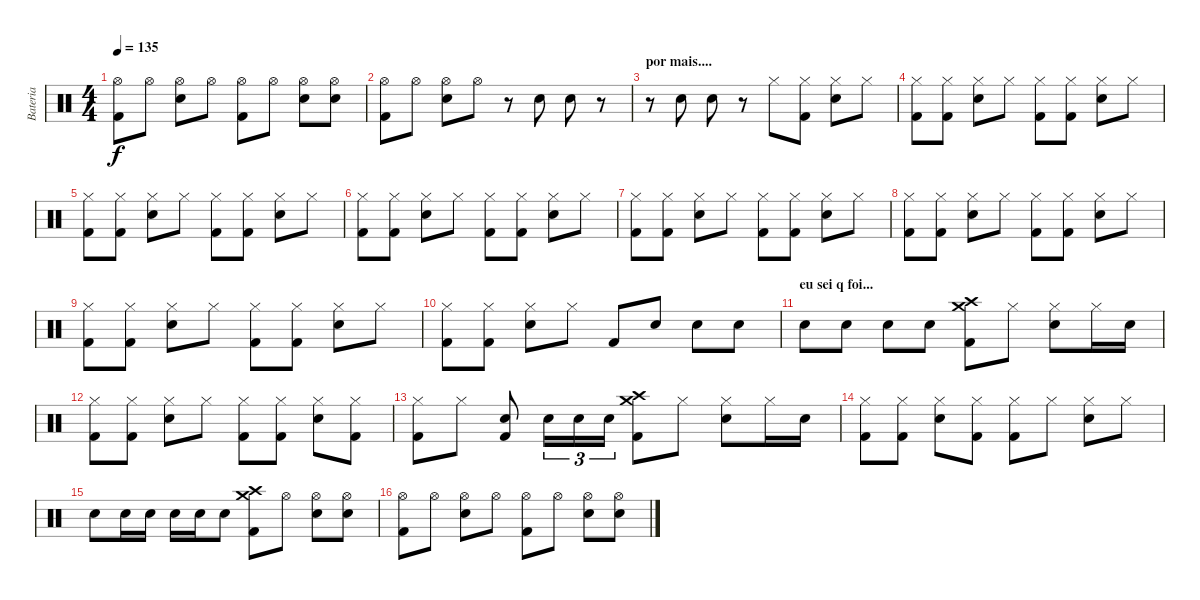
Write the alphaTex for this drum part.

\track ("Bateria" "Bateria") {instrument percussion}
\staff {score}
\articulation defaults
\ts (4 4)
\tempo 135
\clef neutral
\ks c
("Hi-Hat (open)" "Kick (hit) 2").8{dy f} "Hi-Hat (open)".8 ("Hi-Hat (open)" "Electric Snare (hit)").8 "Hi-Hat (open)".8 ("Hi-Hat (open)" "Kick (hit) 2").8 "Hi-Hat (open)".8 ("Hi-Hat (open)" "Electric Snare (hit)").8 ("Hi-Hat (open)" "Electric Snare (hit)").8 |
("Hi-Hat (open)" "Kick (hit) 2").8 "Hi-Hat (open)".8 ("Hi-Hat (open)" "Electric Snare (hit)").8 "Hi-Hat (open)".8 r.8 "Electric Snare (hit)".8 "Electric Snare (hit)".8 r.8 |
\section ("" "por mais....")
r.8 "Electric Snare (hit)".8 "Electric Snare (hit)".8 r.8 "Hi-Hat (closed)".8 ("Hi-Hat (closed)" "Kick (hit) 2").8 ("Hi-Hat (closed)" "Electric Snare (hit)").8 "Hi-Hat (closed)".8 |
("Hi-Hat (closed)" "Kick (hit) 2").8 ("Hi-Hat (closed)" "Kick (hit) 2").8 ("Hi-Hat (closed)" "Electric Snare (hit)").8 "Hi-Hat (closed)".8 ("Hi-Hat (closed)" "Kick (hit) 2").8 ("Hi-Hat (closed)" "Kick (hit) 2").8 ("Hi-Hat (closed)" "Electric Snare (hit)").8 "Hi-Hat (closed)".8 |
("Hi-Hat (closed)" "Kick (hit) 2").8 ("Hi-Hat (closed)" "Kick (hit) 2").8 ("Hi-Hat (closed)" "Electric Snare (hit)").8 "Hi-Hat (closed)".8 ("Hi-Hat (closed)" "Kick (hit) 2").8 ("Hi-Hat (closed)" "Kick (hit) 2").8 ("Hi-Hat (closed)" "Electric Snare (hit)").8 "Hi-Hat (closed)".8 |
("Hi-Hat (closed)" "Kick (hit) 2").8 ("Hi-Hat (closed)" "Kick (hit) 2").8 ("Hi-Hat (closed)" "Electric Snare (hit)").8 "Hi-Hat (closed)".8 ("Hi-Hat (closed)" "Kick (hit) 2").8 ("Hi-Hat (closed)" "Kick (hit) 2").8 ("Hi-Hat (closed)" "Electric Snare (hit)").8 "Hi-Hat (closed)".8 |
("Hi-Hat (closed)" "Kick (hit) 2").8 ("Hi-Hat (closed)" "Kick (hit) 2").8 ("Hi-Hat (closed)" "Electric Snare (hit)").8 "Hi-Hat (closed)".8 ("Hi-Hat (closed)" "Kick (hit) 2").8 ("Hi-Hat (closed)" "Kick (hit) 2").8 ("Hi-Hat (closed)" "Electric Snare (hit)").8 "Hi-Hat (closed)".8 |
("Hi-Hat (closed)" "Kick (hit) 2").8 ("Hi-Hat (closed)" "Kick (hit) 2").8 ("Hi-Hat (closed)" "Electric Snare (hit)").8 "Hi-Hat (closed)".8 ("Hi-Hat (closed)" "Kick (hit) 2").8 ("Hi-Hat (closed)" "Kick (hit) 2").8 ("Hi-Hat (closed)" "Electric Snare (hit)").8 "Hi-Hat (closed)".8 |
("Hi-Hat (closed)" "Kick (hit) 2").8 ("Hi-Hat (closed)" "Kick (hit) 2").8 ("Hi-Hat (closed)" "Electric Snare (hit)").8 "Hi-Hat (closed)".8 ("Hi-Hat (closed)" "Kick (hit) 2").8 ("Hi-Hat (closed)" "Kick (hit) 2").8 ("Hi-Hat (closed)" "Electric Snare (hit)").8 "Hi-Hat (closed)".8 |
("Hi-Hat (closed)" "Kick (hit) 2").8 ("Hi-Hat (closed)" "Kick (hit) 2").8 ("Hi-Hat (closed)" "Electric Snare (hit)").8 "Hi-Hat (closed)".8 "Kick (hit) 2".8 "Electric Snare (hit)".8 "Electric Snare (hit)".8 "Electric Snare (hit)".8 |
\section ("" "eu sei q foi...")
"Electric Snare (hit)".8 "Electric Snare (hit)".8 "Electric Snare (hit)".8 "Electric Snare (hit)".8 ("Crash medium (hit)" "Crash high (hit)" "Kick (hit) 2").8 "Hi-Hat (closed)".8 ("Hi-Hat (closed)" "Electric Snare (hit)").8 "Hi-Hat (closed)".16 "Electric Snare (hit)".16 |
("Hi-Hat (closed)" "Kick (hit) 2").8 ("Hi-Hat (closed)" "Kick (hit) 2").8 ("Hi-Hat (closed)" "Electric Snare (hit)").8 "Hi-Hat (closed)".8 ("Hi-Hat (closed)" "Kick (hit) 2").8 ("Hi-Hat (closed)" "Kick (hit) 2").8 ("Hi-Hat (closed)" "Electric Snare (hit)").8 ("Hi-Hat (closed)" "Kick (hit) 2").8 |
("Hi-Hat (closed)" "Kick (hit) 2").8 "Hi-Hat (closed)".8 ("Electric Snare (hit)" "Kick (hit) 2").8 "Electric Snare (hit)".16{tu (3 2)} "Electric Snare (hit)".16{tu (3 2)} "Electric Snare (hit)".16{tu (3 2)} ("Crash medium (hit)" "Crash high (hit)" "Kick (hit) 2").8 "Hi-Hat (closed)".8 ("Hi-Hat (closed)" "Electric Snare (hit)").8 "Hi-Hat (closed)".16 "Electric Snare (hit)".16 |
("Hi-Hat (closed)" "Kick (hit) 2").8 ("Hi-Hat (closed)" "Kick (hit) 2").8 ("Hi-Hat (closed)" "Electric Snare (hit)").8 ("Hi-Hat (closed)" "Kick (hit) 2").8 ("Hi-Hat (closed)" "Kick (hit) 2").8 "Hi-Hat (closed)".8 ("Hi-Hat (closed)" "Electric Snare (hit)").8 "Hi-Hat (closed)".8 |
"Electric Snare (hit)".8 "Electric Snare (hit)".16 "Electric Snare (hit)".16 "Electric Snare (hit)".16 "Electric Snare (hit)".16 "Electric Snare (hit)".8 ("Crash medium (hit)" "Crash high (hit)" "Kick (hit) 2").8 "Hi-Hat (open)".8 ("Hi-Hat (open)" "Electric Snare (hit)").8 ("Hi-Hat (open)" "Electric Snare (hit)").8 |
("Hi-Hat (open)" "Kick (hit) 2").8 "Hi-Hat (open)".8 ("Hi-Hat (open)" "Electric Snare (hit)").8 "Hi-Hat (open)".8 ("Hi-Hat (open)" "Kick (hit) 2").8 "Hi-Hat (open)".8 ("Hi-Hat (open)" "Electric Snare (hit)").8 ("Hi-Hat (open)" "Electric Snare (hit)").8
